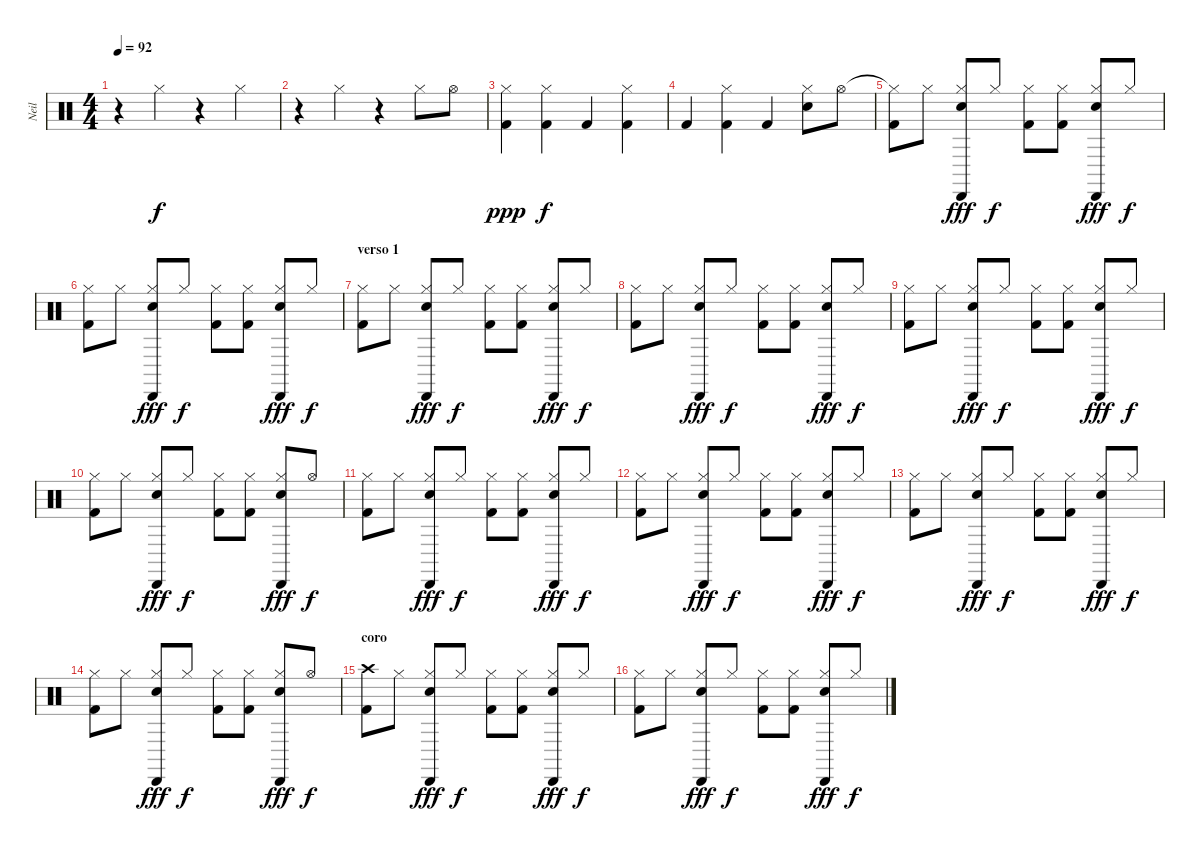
\track ("Neil" "Neil") {instrument percussion}
\staff {score}
\articulation defaults
\ts (4 4)
\tempo 92
\clef neutral
\ks c
r.4{dy f} "Hi-Hat (closed)".4 r.4 "Hi-Hat (closed)".4 |
r.4 "Hi-Hat (closed)".4 r.4 "Hi-Hat (closed)".8 "Hi-Hat (open)".8 |
("Hi-Hat (closed)" "Kick (hit) 2").4{dy ppp} ("Hi-Hat (closed)" "Kick (hit) 2").4{dy f} "Kick (hit) 2".4 ("Hi-Hat (closed)" "Kick (hit) 2").4 |
"Kick (hit) 2".4 ("Hi-Hat (closed)" "Kick (hit) 2").4 "Kick (hit) 2".4 ("Hi-Hat (closed)" "Electric Snare (hit)").8 "Hi-Hat (open)".8 |
("Hi-Hat (closed)"{t} "Kick (hit) 2").8 "Hi-Hat (closed)".8 ("Hi-Hat (closed)" "Cabasa (hit)" "Electric Snare (hit)").8{dy fff} "Hi-Hat (closed)".8{dy f} ("Hi-Hat (closed)" "Kick (hit) 2").8 ("Hi-Hat (closed)" "Kick (hit) 2").8 ("Hi-Hat (closed)" "Cabasa (hit)" "Electric Snare (hit)").8{dy fff} "Hi-Hat (closed)".8{dy f} |
("Hi-Hat (closed)" "Kick (hit) 2").8 "Hi-Hat (closed)".8 ("Hi-Hat (closed)" "Cabasa (hit)" "Electric Snare (hit)").8{dy fff} "Hi-Hat (closed)".8{dy f} ("Hi-Hat (closed)" "Kick (hit) 2").8 ("Hi-Hat (closed)" "Kick (hit) 2").8 ("Hi-Hat (closed)" "Cabasa (hit)" "Electric Snare (hit)").8{dy fff} "Hi-Hat (closed)".8{dy f} |
\section ("" "verso 1")
("Hi-Hat (closed)" "Kick (hit) 2").8 "Hi-Hat (closed)".8 ("Hi-Hat (closed)" "Cabasa (hit)" "Electric Snare (hit)").8{dy fff} "Hi-Hat (closed)".8{dy f} ("Hi-Hat (closed)" "Kick (hit) 2").8 ("Hi-Hat (closed)" "Kick (hit) 2").8 ("Hi-Hat (closed)" "Cabasa (hit)" "Electric Snare (hit)").8{dy fff} "Hi-Hat (closed)".8{dy f} |
("Hi-Hat (closed)" "Kick (hit) 2").8 "Hi-Hat (closed)".8 ("Hi-Hat (closed)" "Cabasa (hit)" "Electric Snare (hit)").8{dy fff} "Hi-Hat (closed)".8{dy f} ("Hi-Hat (closed)" "Kick (hit) 2").8 ("Hi-Hat (closed)" "Kick (hit) 2").8 ("Hi-Hat (closed)" "Cabasa (hit)" "Electric Snare (hit)").8{dy fff} "Hi-Hat (closed)".8{dy f} |
("Hi-Hat (closed)" "Kick (hit) 2").8 "Hi-Hat (closed)".8 ("Hi-Hat (closed)" "Cabasa (hit)" "Electric Snare (hit)").8{dy fff} "Hi-Hat (closed)".8{dy f} ("Hi-Hat (closed)" "Kick (hit) 2").8 ("Hi-Hat (closed)" "Kick (hit) 2").8 ("Hi-Hat (closed)" "Cabasa (hit)" "Electric Snare (hit)").8{dy fff} "Hi-Hat (closed)".8{dy f} |
("Hi-Hat (closed)" "Kick (hit) 2").8 "Hi-Hat (closed)".8 ("Hi-Hat (closed)" "Cabasa (hit)" "Electric Snare (hit)").8{dy fff} "Hi-Hat (closed)".8{dy f} ("Hi-Hat (closed)" "Kick (hit) 2").8 ("Hi-Hat (closed)" "Kick (hit) 2").8 ("Hi-Hat (closed)" "Cabasa (hit)" "Electric Snare (hit)").8{dy fff} "Hi-Hat (open)".8{dy f} |
("Hi-Hat (closed)" "Kick (hit) 2").8 "Hi-Hat (closed)".8 ("Hi-Hat (closed)" "Cabasa (hit)" "Electric Snare (hit)").8{dy fff} "Hi-Hat (closed)".8{dy f} ("Hi-Hat (closed)" "Kick (hit) 2").8 ("Hi-Hat (closed)" "Kick (hit) 2").8 ("Hi-Hat (closed)" "Cabasa (hit)" "Electric Snare (hit)").8{dy fff} "Hi-Hat (closed)".8{dy f} |
("Hi-Hat (closed)" "Kick (hit) 2").8 "Hi-Hat (closed)".8 ("Hi-Hat (closed)" "Cabasa (hit)" "Electric Snare (hit)").8{dy fff} "Hi-Hat (closed)".8{dy f} ("Hi-Hat (closed)" "Kick (hit) 2").8 ("Hi-Hat (closed)" "Kick (hit) 2").8 ("Hi-Hat (closed)" "Cabasa (hit)" "Electric Snare (hit)").8{dy fff} "Hi-Hat (closed)".8{dy f} |
("Hi-Hat (closed)" "Kick (hit) 2").8 "Hi-Hat (closed)".8 ("Hi-Hat (closed)" "Cabasa (hit)" "Electric Snare (hit)").8{dy fff} "Hi-Hat (closed)".8{dy f} ("Hi-Hat (closed)" "Kick (hit) 2").8 ("Hi-Hat (closed)" "Kick (hit) 2").8 ("Hi-Hat (closed)" "Cabasa (hit)" "Electric Snare (hit)").8{dy fff} "Hi-Hat (closed)".8{dy f} |
("Hi-Hat (closed)" "Kick (hit) 2").8 "Hi-Hat (closed)".8 ("Hi-Hat (closed)" "Cabasa (hit)" "Electric Snare (hit)").8{dy fff} "Hi-Hat (closed)".8{dy f} ("Hi-Hat (closed)" "Kick (hit) 2").8 ("Hi-Hat (closed)" "Kick (hit) 2").8 ("Hi-Hat (closed)" "Cabasa (hit)" "Electric Snare (hit)").8{dy fff} "Hi-Hat (open)".8{dy f} |
\section ("" "coro")
("Crash high (hit)" "Kick (hit) 2").8 "Hi-Hat (closed)".8 ("Hi-Hat (closed)" "Cabasa (hit)" "Electric Snare (hit)").8{dy fff} "Hi-Hat (closed)".8{dy f} ("Hi-Hat (closed)" "Kick (hit) 2").8 ("Hi-Hat (closed)" "Kick (hit) 2").8 ("Hi-Hat (closed)" "Cabasa (hit)" "Electric Snare (hit)").8{dy fff} "Hi-Hat (closed)".8{dy f} |
("Hi-Hat (closed)" "Kick (hit) 2").8 "Hi-Hat (closed)".8 ("Hi-Hat (closed)" "Cabasa (hit)" "Electric Snare (hit)").8{dy fff} "Hi-Hat (closed)".8{dy f} ("Hi-Hat (closed)" "Kick (hit) 2").8 ("Hi-Hat (closed)" "Kick (hit) 2").8 ("Hi-Hat (closed)" "Cabasa (hit)" "Electric Snare (hit)").8{dy fff} "Hi-Hat (closed)".8{dy f}
